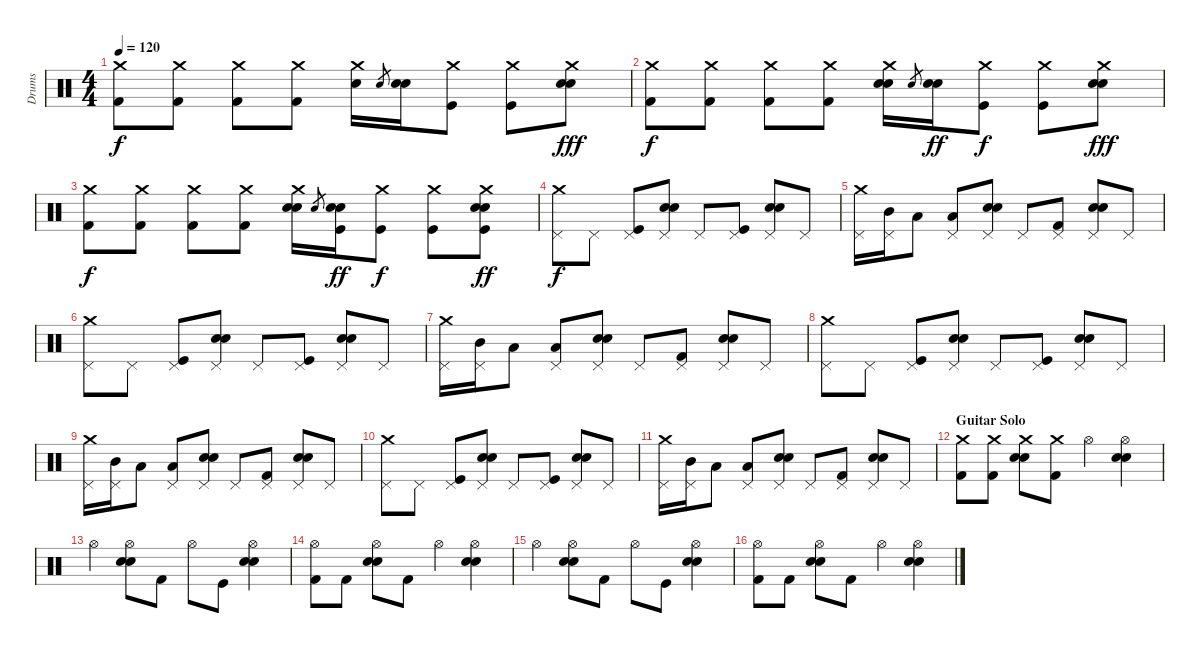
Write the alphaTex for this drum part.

\track ("Drums" "Drums") {instrument percussion}
\staff {score}
\articulation defaults
\ts (4 4)
\tempo 120
\clef neutral
\ks c
("Crash medium (hit)" "Kick (hit) 2").8{dy f} ("Crash medium (hit)" "Kick (hit) 2").8 ("Crash medium (hit)" "Kick (hit) 2").8 ("Crash medium (hit)" "Kick (hit) 2").8 ("Crash medium (hit)" "Electric Snare (hit)").16 "Electric Snare (hit)".8{gr} ("Electric Snare (hit)" "Snare (hit) 2").16 ("Crash medium (hit)" "Kick (hit)").8 ("Crash medium (hit)" "Kick (hit)").8 ("Crash medium (hit)" "Electric Snare (hit)" "Snare (hit) 2").8{dy fff} |
("Crash medium (hit)" "Kick (hit) 2").8{dy f} ("Crash medium (hit)" "Kick (hit) 2").8 ("Crash medium (hit)" "Kick (hit) 2").8 ("Crash medium (hit)" "Kick (hit) 2").8 ("Crash medium (hit)" "Electric Snare (hit)" "Snare (hit) 2").16 "Electric Snare (hit)".8{gr} ("Electric Snare (hit)" "Snare (hit) 2").16{dy ff} ("Crash medium (hit)" "Kick (hit)").8{dy f} ("Crash medium (hit)" "Kick (hit)").8 ("Crash medium (hit)" "Electric Snare (hit)" "Snare (hit) 2").8{dy fff} |
("Crash medium (hit)" "Kick (hit) 2").8{dy f} ("Crash medium (hit)" "Kick (hit) 2").8 ("Crash medium (hit)" "Kick (hit) 2").8 ("Crash medium (hit)" "Kick (hit) 2").8 ("Crash medium (hit)" "Electric Snare (hit)" "Snare (hit) 2").16 "Electric Snare (hit)".8{gr} ("Electric Snare (hit)" "Snare (hit) 2" "Kick (hit)").16{dy ff} ("Crash medium (hit)" "Kick (hit)").8{dy f} ("Crash medium (hit)" "Kick (hit)").8 ("Crash medium (hit)" "Electric Snare (hit)" "Snare (hit) 2" "Kick (hit)").8{dy ff} |
("Pedal Hi-Hat (hit)" "Crash medium (hit)").8{dy f} "Pedal Hi-Hat (hit)".8 ("Pedal Hi-Hat (hit)" "Kick (hit)").8 ("Pedal Hi-Hat (hit)" "Electric Snare (hit)" "Snare (hit) 2").8 "Pedal Hi-Hat (hit)".8 ("Pedal Hi-Hat (hit)" "Kick (hit)").8 ("Pedal Hi-Hat (hit)" "Electric Snare (hit)" "Snare (hit) 2").8 "Pedal Hi-Hat (hit)".8 |
("Crash medium (hit)" "Pedal Hi-Hat (hit)").16 ("Pedal Hi-Hat (hit)" "Mid Tom (hit)").16 "Low Tom (hit)".8 ("Pedal Hi-Hat (hit)" "Low Tom (hit)").8 ("Pedal Hi-Hat (hit)" "Electric Snare (hit)" "Snare (hit) 2").8 "Pedal Hi-Hat (hit)".8 ("Pedal Hi-Hat (hit)" "Kick (hit) 2").8 ("Pedal Hi-Hat (hit)" "Electric Snare (hit)" "Snare (hit) 2").8 "Pedal Hi-Hat (hit)".8 |
("Pedal Hi-Hat (hit)" "Crash medium (hit)").8 "Pedal Hi-Hat (hit)".8 ("Pedal Hi-Hat (hit)" "Kick (hit)").8 ("Pedal Hi-Hat (hit)" "Electric Snare (hit)" "Snare (hit) 2").8 "Pedal Hi-Hat (hit)".8 ("Pedal Hi-Hat (hit)" "Kick (hit)").8 ("Pedal Hi-Hat (hit)" "Electric Snare (hit)" "Snare (hit) 2").8 "Pedal Hi-Hat (hit)".8 |
("Crash medium (hit)" "Pedal Hi-Hat (hit)").16 ("Pedal Hi-Hat (hit)" "Mid Tom (hit)").16 "Low Tom (hit)".8 ("Pedal Hi-Hat (hit)" "Low Tom (hit)").8 ("Pedal Hi-Hat (hit)" "Electric Snare (hit)" "Snare (hit) 2").8 "Pedal Hi-Hat (hit)".8 ("Pedal Hi-Hat (hit)" "Kick (hit) 2").8 ("Pedal Hi-Hat (hit)" "Electric Snare (hit)" "Snare (hit) 2").8 "Pedal Hi-Hat (hit)".8 |
("Pedal Hi-Hat (hit)" "Crash medium (hit)").8 "Pedal Hi-Hat (hit)".8 ("Pedal Hi-Hat (hit)" "Kick (hit)").8 ("Pedal Hi-Hat (hit)" "Electric Snare (hit)" "Snare (hit) 2").8 "Pedal Hi-Hat (hit)".8 ("Pedal Hi-Hat (hit)" "Kick (hit)").8 ("Pedal Hi-Hat (hit)" "Electric Snare (hit)" "Snare (hit) 2").8 "Pedal Hi-Hat (hit)".8 |
("Crash medium (hit)" "Pedal Hi-Hat (hit)").16 ("Pedal Hi-Hat (hit)" "Mid Tom (hit)").16 "Low Tom (hit)".8 ("Pedal Hi-Hat (hit)" "Low Tom (hit)").8 ("Pedal Hi-Hat (hit)" "Electric Snare (hit)" "Snare (hit) 2").8 "Pedal Hi-Hat (hit)".8 ("Pedal Hi-Hat (hit)" "Kick (hit) 2").8 ("Pedal Hi-Hat (hit)" "Electric Snare (hit)" "Snare (hit) 2").8 "Pedal Hi-Hat (hit)".8 |
("Pedal Hi-Hat (hit)" "Crash medium (hit)").8 "Pedal Hi-Hat (hit)".8 ("Pedal Hi-Hat (hit)" "Kick (hit)").8 ("Pedal Hi-Hat (hit)" "Electric Snare (hit)" "Snare (hit) 2").8 "Pedal Hi-Hat (hit)".8 ("Pedal Hi-Hat (hit)" "Kick (hit)").8 ("Pedal Hi-Hat (hit)" "Electric Snare (hit)" "Snare (hit) 2").8 "Pedal Hi-Hat (hit)".8 |
("Crash medium (hit)" "Pedal Hi-Hat (hit)").16 ("Pedal Hi-Hat (hit)" "Mid Tom (hit)").16 "Low Tom (hit)".8 ("Pedal Hi-Hat (hit)" "Low Tom (hit)").8 ("Pedal Hi-Hat (hit)" "Electric Snare (hit)" "Snare (hit) 2").8 "Pedal Hi-Hat (hit)".8 ("Pedal Hi-Hat (hit)" "Kick (hit) 2").8 ("Pedal Hi-Hat (hit)" "Electric Snare (hit)" "Snare (hit) 2").8 "Pedal Hi-Hat (hit)".8 |
\section ("" "Guitar Solo")
("Crash medium (hit)" "Kick (hit) 2").8 ("Crash medium (hit)" "Kick (hit) 2").8 ("Crash medium (hit)" "Electric Snare (hit)" "Snare (hit) 2").8 ("Crash medium (hit)" "Kick (hit) 2").8 "Hi-Hat (open)".4 ("Electric Snare (hit)" "Hi-Hat (open)" "Snare (hit) 2").4 |
"Hi-Hat (open)".4 ("Hi-Hat (open)" "Electric Snare (hit)" "Snare (hit) 2").8 "Kick (hit) 2".8 "Hi-Hat (open)".8 "Kick (hit)".8 ("Electric Snare (hit)" "Snare (hit) 2" "Hi-Hat (open)").4 |
("Hi-Hat (open)" "Kick (hit) 2").8 "Kick (hit) 2".8 ("Hi-Hat (open)" "Electric Snare (hit)" "Snare (hit) 2").8 "Kick (hit) 2".8 "Hi-Hat (open)".4 ("Electric Snare (hit)" "Hi-Hat (open)" "Snare (hit) 2").4 |
"Hi-Hat (open)".4 ("Hi-Hat (open)" "Electric Snare (hit)" "Snare (hit) 2").8 "Kick (hit) 2".8 "Hi-Hat (open)".8 "Kick (hit)".8 ("Electric Snare (hit)" "Snare (hit) 2" "Hi-Hat (open)").4 |
("Hi-Hat (open)" "Kick (hit) 2").8 "Kick (hit) 2".8 ("Hi-Hat (open)" "Electric Snare (hit)" "Snare (hit) 2").8 "Kick (hit) 2".8 "Hi-Hat (open)".4 ("Electric Snare (hit)" "Hi-Hat (open)" "Snare (hit) 2").4
